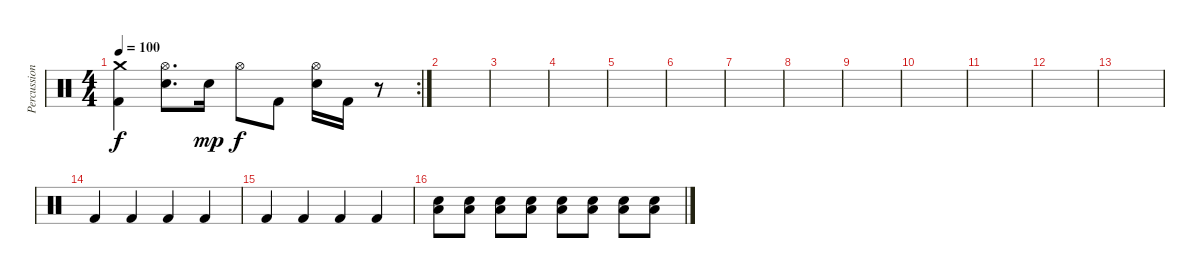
\track ("Percussion" "Percussion") {instrument percussion}
\staff {score}
\articulation defaults
\rc 2
\ts (4 4)
\tempo 100
\clef neutral
\ks c
("Kick (hit) 2" "Crash medium (hit)").4{dy f} ("Electric Snare (hit)" "Hi-Hat (open)").8{d} "Electric Snare (hit)".16{dy mp} "Hi-Hat (open)".8{dy f} "Kick (hit) 2".8 ("Electric Snare (hit)" "Hi-Hat (open)").16 "Kick (hit) 2".16 r.8 |
|
|
|
|
|
|
|
|
|
|
|
|
"Kick (hit) 2".4 "Kick (hit) 2".4 "Kick (hit) 2".4 "Kick (hit) 2".4 |
"Kick (hit) 2".4 "Kick (hit) 2".4 "Kick (hit) 2".4 "Kick (hit) 2".4 |
("Electric Snare (hit)" "Low Floor Tom (hit)").8 ("Electric Snare (hit)" "Low Floor Tom (hit)").8 ("Electric Snare (hit)" "Low Floor Tom (hit)").8 ("Electric Snare (hit)" "Low Floor Tom (hit)").8 ("Electric Snare (hit)" "Low Floor Tom (hit)").8 ("Electric Snare (hit)" "Low Floor Tom (hit)").8 ("Electric Snare (hit)" "Low Floor Tom (hit)").8 ("Electric Snare (hit)" "Low Floor Tom (hit)").8
